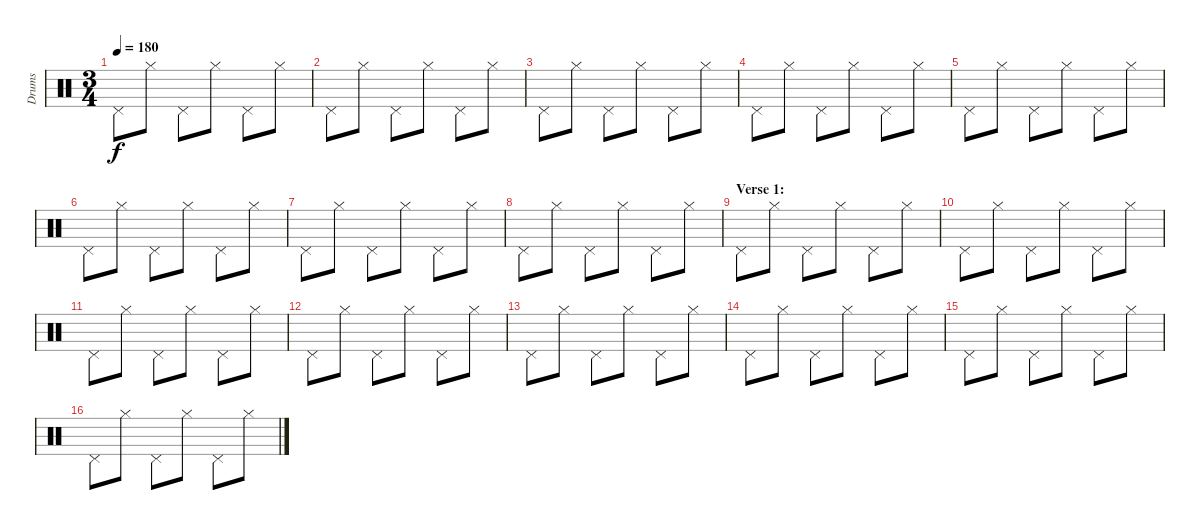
\track ("Drums" "Drums") {instrument percussion}
\staff {score}
\articulation defaults
\ts (3 4)
\tempo 180
\clef neutral
\ks c "Pedal Hi-Hat (hit)".8{dy f} "Hi-Hat (closed)".8 "Pedal Hi-Hat (hit)".8 "Hi-Hat (closed)".8 "Pedal Hi-Hat (hit)".8 "Hi-Hat (closed)".8
|
"Pedal Hi-Hat (hit)".8 "Hi-Hat (closed)".8 "Pedal Hi-Hat (hit)".8 "Hi-Hat (closed)".8 "Pedal Hi-Hat (hit)".8 "Hi-Hat (closed)".8 |
"Pedal Hi-Hat (hit)".8 "Hi-Hat (closed)".8 "Pedal Hi-Hat (hit)".8 "Hi-Hat (closed)".8 "Pedal Hi-Hat (hit)".8 "Hi-Hat (closed)".8 |
"Pedal Hi-Hat (hit)".8 "Hi-Hat (closed)".8 "Pedal Hi-Hat (hit)".8 "Hi-Hat (closed)".8 "Pedal Hi-Hat (hit)".8 "Hi-Hat (closed)".8 |
"Pedal Hi-Hat (hit)".8 "Hi-Hat (closed)".8 "Pedal Hi-Hat (hit)".8 "Hi-Hat (closed)".8 "Pedal Hi-Hat (hit)".8 "Hi-Hat (closed)".8 |
"Pedal Hi-Hat (hit)".8 "Hi-Hat (closed)".8 "Pedal Hi-Hat (hit)".8 "Hi-Hat (closed)".8 "Pedal Hi-Hat (hit)".8 "Hi-Hat (closed)".8 |
"Pedal Hi-Hat (hit)".8 "Hi-Hat (closed)".8 "Pedal Hi-Hat (hit)".8 "Hi-Hat (closed)".8 "Pedal Hi-Hat (hit)".8 "Hi-Hat (closed)".8 |
"Pedal Hi-Hat (hit)".8 "Hi-Hat (closed)".8 "Pedal Hi-Hat (hit)".8 "Hi-Hat (closed)".8 "Pedal Hi-Hat (hit)".8 "Hi-Hat (closed)".8 |
\section ("" "Verse 1:")
"Pedal Hi-Hat (hit)".8 "Hi-Hat (closed)".8 "Pedal Hi-Hat (hit)".8 "Hi-Hat (closed)".8 "Pedal Hi-Hat (hit)".8 "Hi-Hat (closed)".8 |
"Pedal Hi-Hat (hit)".8 "Hi-Hat (closed)".8 "Pedal Hi-Hat (hit)".8 "Hi-Hat (closed)".8 "Pedal Hi-Hat (hit)".8 "Hi-Hat (closed)".8 |
"Pedal Hi-Hat (hit)".8 "Hi-Hat (closed)".8 "Pedal Hi-Hat (hit)".8 "Hi-Hat (closed)".8 "Pedal Hi-Hat (hit)".8 "Hi-Hat (closed)".8 |
"Pedal Hi-Hat (hit)".8 "Hi-Hat (closed)".8 "Pedal Hi-Hat (hit)".8 "Hi-Hat (closed)".8 "Pedal Hi-Hat (hit)".8 "Hi-Hat (closed)".8 |
"Pedal Hi-Hat (hit)".8 "Hi-Hat (closed)".8 "Pedal Hi-Hat (hit)".8 "Hi-Hat (closed)".8 "Pedal Hi-Hat (hit)".8 "Hi-Hat (closed)".8 |
"Pedal Hi-Hat (hit)".8 "Hi-Hat (closed)".8 "Pedal Hi-Hat (hit)".8 "Hi-Hat (closed)".8 "Pedal Hi-Hat (hit)".8 "Hi-Hat (closed)".8 |
"Pedal Hi-Hat (hit)".8 "Hi-Hat (closed)".8 "Pedal Hi-Hat (hit)".8 "Hi-Hat (closed)".8 "Pedal Hi-Hat (hit)".8 "Hi-Hat (closed)".8 |
"Pedal Hi-Hat (hit)".8 "Hi-Hat (closed)".8 "Pedal Hi-Hat (hit)".8 "Hi-Hat (closed)".8 "Pedal Hi-Hat (hit)".8 "Hi-Hat (closed)".8
